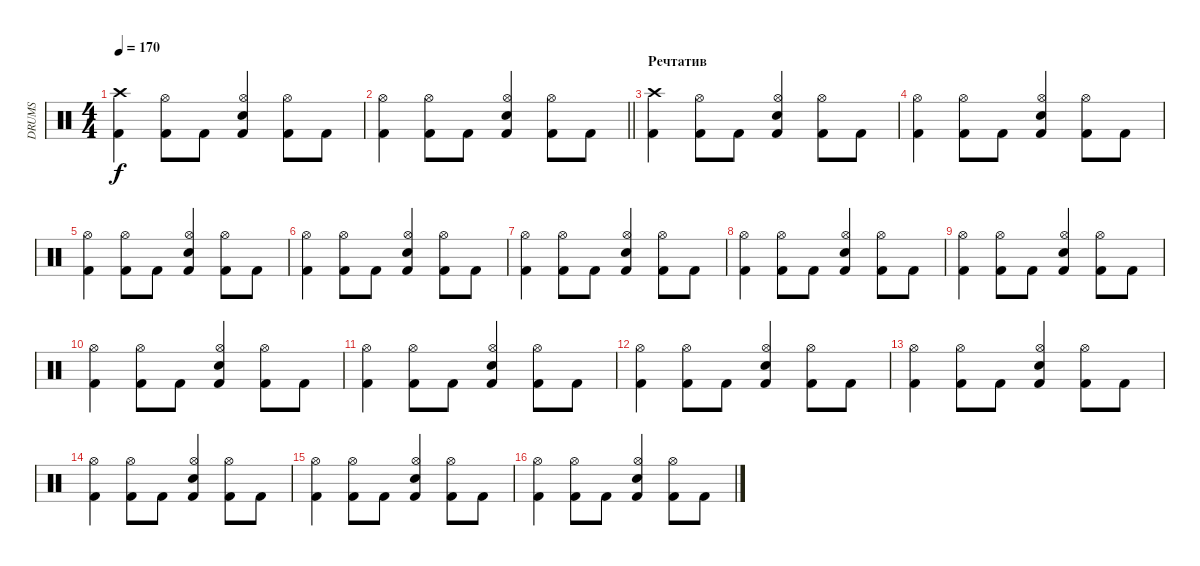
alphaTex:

\track ("DRUMS" "DRUMS") {instrument percussion}
\staff {score}
\articulation defaults
\ts (4 4)
\tempo 170
\clef neutral
\ks c
("Crash high (hit)" "Kick (hit) 2").4{dy f} ("Hi-Hat (open)" "Kick (hit) 2").8 "Kick (hit) 2".8 ("Hi-Hat (open)" "Snare (hit) 2" "Kick (hit) 2").4 ("Hi-Hat (open)" "Kick (hit) 2").8 "Kick (hit) 2".8 |
\barLineRight lightlight
("Hi-Hat (open)" "Kick (hit) 2").4 ("Hi-Hat (open)" "Kick (hit) 2").8 "Kick (hit) 2".8 ("Hi-Hat (open)" "Snare (hit) 2" "Kick (hit) 2").4 ("Hi-Hat (open)" "Kick (hit) 2").8 "Kick (hit) 2".8 |
\section ("" "Речтатив")
("Crash high (hit)" "Kick (hit) 2").4 ("Hi-Hat (open)" "Kick (hit) 2").8 "Kick (hit) 2".8 ("Hi-Hat (open)" "Snare (hit) 2" "Kick (hit) 2").4 ("Hi-Hat (open)" "Kick (hit) 2").8 "Kick (hit) 2".8 |
("Hi-Hat (open)" "Kick (hit) 2").4 ("Hi-Hat (open)" "Kick (hit) 2").8 "Kick (hit) 2".8 ("Hi-Hat (open)" "Snare (hit) 2" "Kick (hit) 2").4 ("Hi-Hat (open)" "Kick (hit) 2").8 "Kick (hit) 2".8 |
("Hi-Hat (open)" "Kick (hit) 2").4 ("Hi-Hat (open)" "Kick (hit) 2").8 "Kick (hit) 2".8 ("Hi-Hat (open)" "Snare (hit) 2" "Kick (hit) 2").4 ("Hi-Hat (open)" "Kick (hit) 2").8 "Kick (hit) 2".8 |
("Hi-Hat (open)" "Kick (hit) 2").4 ("Hi-Hat (open)" "Kick (hit) 2").8 "Kick (hit) 2".8 ("Hi-Hat (open)" "Snare (hit) 2" "Kick (hit) 2").4 ("Hi-Hat (open)" "Kick (hit) 2").8 "Kick (hit) 2".8 |
("Hi-Hat (open)" "Kick (hit) 2").4 ("Hi-Hat (open)" "Kick (hit) 2").8 "Kick (hit) 2".8 ("Hi-Hat (open)" "Snare (hit) 2" "Kick (hit) 2").4 ("Hi-Hat (open)" "Kick (hit) 2").8 "Kick (hit) 2".8 |
("Hi-Hat (open)" "Kick (hit) 2").4 ("Hi-Hat (open)" "Kick (hit) 2").8 "Kick (hit) 2".8 ("Hi-Hat (open)" "Snare (hit) 2" "Kick (hit) 2").4 ("Hi-Hat (open)" "Kick (hit) 2").8 "Kick (hit) 2".8 |
("Hi-Hat (open)" "Kick (hit) 2").4 ("Hi-Hat (open)" "Kick (hit) 2").8 "Kick (hit) 2".8 ("Hi-Hat (open)" "Snare (hit) 2" "Kick (hit) 2").4 ("Hi-Hat (open)" "Kick (hit) 2").8 "Kick (hit) 2".8 |
("Hi-Hat (open)" "Kick (hit) 2").4 ("Hi-Hat (open)" "Kick (hit) 2").8 "Kick (hit) 2".8 ("Hi-Hat (open)" "Snare (hit) 2" "Kick (hit) 2").4 ("Hi-Hat (open)" "Kick (hit) 2").8 "Kick (hit) 2".8 |
("Hi-Hat (open)" "Kick (hit) 2").4 ("Hi-Hat (open)" "Kick (hit) 2").8 "Kick (hit) 2".8 ("Hi-Hat (open)" "Snare (hit) 2" "Kick (hit) 2").4 ("Hi-Hat (open)" "Kick (hit) 2").8 "Kick (hit) 2".8 |
("Hi-Hat (open)" "Kick (hit) 2").4 ("Hi-Hat (open)" "Kick (hit) 2").8 "Kick (hit) 2".8 ("Hi-Hat (open)" "Snare (hit) 2" "Kick (hit) 2").4 ("Hi-Hat (open)" "Kick (hit) 2").8 "Kick (hit) 2".8 |
("Hi-Hat (open)" "Kick (hit) 2").4 ("Hi-Hat (open)" "Kick (hit) 2").8 "Kick (hit) 2".8 ("Hi-Hat (open)" "Snare (hit) 2" "Kick (hit) 2").4 ("Hi-Hat (open)" "Kick (hit) 2").8 "Kick (hit) 2".8 |
("Hi-Hat (open)" "Kick (hit) 2").4 ("Hi-Hat (open)" "Kick (hit) 2").8 "Kick (hit) 2".8 ("Hi-Hat (open)" "Snare (hit) 2" "Kick (hit) 2").4 ("Hi-Hat (open)" "Kick (hit) 2").8 "Kick (hit) 2".8 |
("Hi-Hat (open)" "Kick (hit) 2").4 ("Hi-Hat (open)" "Kick (hit) 2").8 "Kick (hit) 2".8 ("Hi-Hat (open)" "Snare (hit) 2" "Kick (hit) 2").4 ("Hi-Hat (open)" "Kick (hit) 2").8 "Kick (hit) 2".8 |
("Hi-Hat (open)" "Kick (hit) 2").4 ("Hi-Hat (open)" "Kick (hit) 2").8 "Kick (hit) 2".8 ("Hi-Hat (open)" "Snare (hit) 2" "Kick (hit) 2").4 ("Hi-Hat (open)" "Kick (hit) 2").8 "Kick (hit) 2".8
